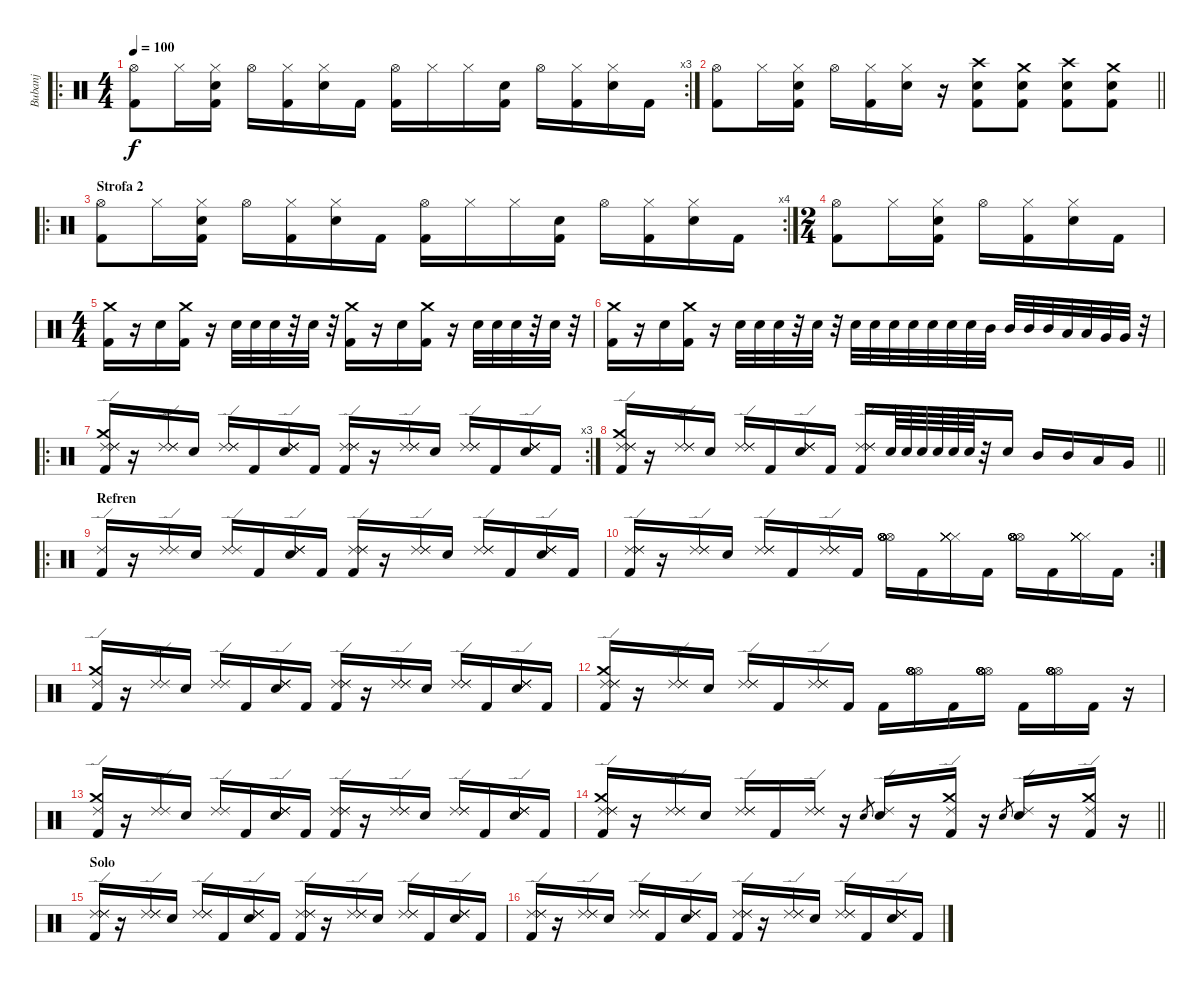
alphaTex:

\track ("Bubanj" "Bubanj") {instrument percussion}
\staff {score}
\articulation defaults
\ro
\rc 3
\ts (4 4)
\tempo 100
\clef neutral
\ks c
("Hi-Hat (open)" "Kick (hit) 2").8{dy f} "Hi-Hat (closed)".16 ("Hi-Hat (closed)" "Snare (hit) 2" "Kick (hit) 2").16 "Hi-Hat (open)".16 ("Hi-Hat (closed)" "Kick (hit) 2").16 ("Hi-Hat (closed)" "Snare (hit) 2").16 "Kick (hit) 2".16 ("Hi-Hat (open)" "Kick (hit) 2").16 "Hi-Hat (closed)".16 "Hi-Hat (closed)".16 ("Snare (hit) 2" "Kick (hit) 2").16 "Hi-Hat (open)".16 ("Hi-Hat (closed)" "Kick (hit) 2").16 ("Hi-Hat (closed)" "Snare (hit) 2").16 "Kick (hit) 2".16 |
\barLineRight lightlight
("Hi-Hat (open)" "Kick (hit) 2").8 "Hi-Hat (closed)".16 ("Hi-Hat (closed)" "Snare (hit) 2" "Kick (hit) 2").16 "Hi-Hat (open)".16 ("Hi-Hat (closed)" "Kick (hit) 2").16 ("Hi-Hat (closed)" "Snare (hit) 2").16 r.16 ("Kick (hit) 2" "Snare (hit) 2" "Crash high (hit)").8 ("Kick (hit) 2" "Snare (hit) 2" "Crash medium (hit)").8 ("Kick (hit) 2" "Snare (hit) 2" "Crash high (hit)").8 ("Kick (hit) 2" "Snare (hit) 2" "Crash medium (hit)").8 |
\ro
\rc 4
\section ("" "Strofa 2")
("Hi-Hat (open)" "Kick (hit) 2").8 "Hi-Hat (closed)".16 ("Hi-Hat (closed)" "Snare (hit) 2" "Kick (hit) 2").16 "Hi-Hat (open)".16 ("Hi-Hat (closed)" "Kick (hit) 2").16 ("Hi-Hat (closed)" "Snare (hit) 2").16 "Kick (hit) 2".16 ("Hi-Hat (open)" "Kick (hit) 2").16 "Hi-Hat (closed)".16 "Hi-Hat (closed)".16 ("Snare (hit) 2" "Kick (hit) 2").16 "Hi-Hat (open)".16 ("Hi-Hat (closed)" "Kick (hit) 2").16 ("Hi-Hat (closed)" "Snare (hit) 2").16 "Kick (hit) 2".16 |
\ts (2 4)
("Hi-Hat (open)" "Kick (hit) 2").8 "Hi-Hat (closed)".16 ("Hi-Hat (closed)" "Snare (hit) 2" "Kick (hit) 2").16 "Hi-Hat (open)".16 ("Hi-Hat (closed)" "Kick (hit) 2").16 ("Hi-Hat (closed)" "Snare (hit) 2").16 "Kick (hit) 2".16 |
\ts (4 4)
("Kick (hit) 2" "Crash medium (hit)").16 r.16 "Snare (hit) 2".16 ("Kick (hit) 2" "Crash medium (hit)").16 r.16 "Snare (hit) 2".32 "Snare (hit) 2".32 "Snare (hit) 2".32 r.32 "Snare (hit) 2".32 r.32 ("Kick (hit) 2" "Crash medium (hit)").16 r.16 "Snare (hit) 2".16 ("Kick (hit) 2" "Crash medium (hit)").16 r.16 "Snare (hit) 2".32 "Snare (hit) 2".32 "Snare (hit) 2".32 r.32 "Snare (hit) 2".32 r.32 |
("Kick (hit) 2" "Crash medium (hit)").16 r.16 "Snare (hit) 2".16 ("Kick (hit) 2" "Crash medium (hit)").16 r.16 "Snare (hit) 2".32 "Snare (hit) 2".32 "Snare (hit) 2".32 r.32 "Snare (hit) 2".32 r.32 "Snare (hit) 2".32 "Snare (hit) 2".32 "Snare (hit) 2".32 "Snare (hit) 2".32 "Snare (hit) 2".32 "Snare (hit) 2".32 "Snare (hit) 2".32 "Mid Tom (hit)".32 "Mid Tom (hit)".32 "Mid Tom (hit)".32 "Mid Tom (hit)".32 "Low Tom (hit)".32 "Low Tom (hit)".32 "Very Low Tom (hit)".32 "Very Low Tom (hit)".32 r.32 |
\ro
\rc 3
("Crash medium (hit)" "Kick (hit) 2" "Ride (edge) 2" "Ride (edge) 2" "Ride (edge) 2").16 r.16 ("Ride (edge) 2" "Ride (edge) 2" "Ride (edge) 2").16 "Snare (hit) 2".16 ("Ride (edge) 2" "Ride (edge) 2" "Ride (edge) 2").16 "Kick (hit) 2".16 ("Snare (hit) 2" "Ride (edge) 2" "Ride (edge) 2" "Ride (edge) 2").16 "Kick (hit) 2".16 ("Kick (hit) 2" "Ride (edge) 2" "Ride (edge) 2" "Ride (edge) 2").16 r.16 ("Ride (edge) 2" "Ride (edge) 2" "Ride (edge) 2").16 "Snare (hit) 2".16 ("Ride (edge) 2" "Ride (edge) 2" "Ride (edge) 2").16 "Kick (hit) 2".16 ("Snare (hit) 2" "Ride (edge) 2" "Ride (edge) 2" "Ride (edge) 2").16 "Kick (hit) 2".16 |
\barLineRight lightlight
("Crash medium (hit)" "Kick (hit) 2" "Ride (edge) 2" "Ride (edge) 2" "Ride (edge) 2").16 r.16 ("Ride (edge) 2" "Ride (edge) 2" "Ride (edge) 2").16 "Snare (hit) 2".16 ("Ride (edge) 2" "Ride (edge) 2" "Ride (edge) 2").16 "Kick (hit) 2".16 ("Snare (hit) 2" "Ride (edge) 2" "Ride (edge) 2" "Ride (edge) 2").16 "Kick (hit) 2".16 ("Kick (hit) 2" "Ride (edge) 2" "Ride (edge) 2" "Ride (edge) 2").16 "Snare (hit) 2".64 "Snare (hit) 2".64 "Snare (hit) 2".64 "Snare (hit) 2".64 "Snare (hit) 2".64 "Snare (hit) 2".64 r.32 "Snare (hit) 2".16 "Mid Tom (hit)".16 "Mid Tom (hit)".16 "Low Tom (hit)".16 "Very Low Tom (hit)".16 |
\ro
\section ("" "Refren")
("Kick (hit) 2" "Ride (edge) 2").16 r.16 ("Ride (edge) 2" "Ride (edge) 2").16 "Snare (hit) 2".16 ("Ride (edge) 2" "Ride (edge) 2").16 "Kick (hit) 2".16 ("Snare (hit) 2" "Ride (edge) 2" "Ride (edge) 2" "Ride (edge) 2").16 "Kick (hit) 2".16 ("Kick (hit) 2" "Ride (edge) 2" "Ride (edge) 2" "Ride (edge) 2").16 r.16 ("Ride (edge) 2" "Ride (edge) 2" "Ride (edge) 2").16 "Snare (hit) 2".16 ("Ride (edge) 2" "Ride (edge) 2" "Ride (edge) 2").16 "Kick (hit) 2".16 ("Snare (hit) 2" "Ride (edge) 2" "Ride (edge) 2" "Ride (edge) 2").16 "Kick (hit) 2".16 |
\rc 2
("Kick (hit) 2" "Ride (edge) 2" "Ride (edge) 2" "Ride (edge) 2").16 r.16 ("Ride (edge) 2" "Ride (edge) 2" "Ride (edge) 2").16 "Snare (hit) 2".16 ("Ride (edge) 2" "Ride (edge) 2" "Ride (edge) 2").16 "Kick (hit) 2".16 ("Ride (edge) 2" "Ride (edge) 2" "Ride (edge) 2").16 "Kick (hit) 2".16 ("Hi-Hat (open)" "Hi-Hat (open)" "Hi-Hat (open)" "Hi-Hat (open)" "Hi-Hat (open)" "Hi-Hat (open)").16 "Kick (hit) 2".16 ("Hi-Hat (closed)" "Hi-Hat (closed)" "Hi-Hat (closed)" "Hi-Hat (closed)" "Hi-Hat (closed)" "Hi-Hat (closed)").16 "Kick (hit) 2".16 ("Hi-Hat (open)" "Hi-Hat (open)" "Hi-Hat (open)" "Hi-Hat (open)" "Hi-Hat (open)" "Hi-Hat (open)").16 "Kick (hit) 2".16 ("Hi-Hat (closed)" "Hi-Hat (closed)" "Hi-Hat (closed)" "Hi-Hat (closed)" "Hi-Hat (closed)" "Hi-Hat (closed)").16 "Kick (hit) 2".16 |
("Crash medium (hit)" "Kick (hit) 2" "Ride (edge) 2").16 r.16 ("Ride (edge) 2" "Ride (edge) 2").16 "Snare (hit) 2".16 ("Ride (edge) 2" "Ride (edge) 2").16 "Kick (hit) 2".16 ("Snare (hit) 2" "Ride (edge) 2" "Ride (edge) 2" "Ride (edge) 2").16 "Kick (hit) 2".16 ("Kick (hit) 2" "Ride (edge) 2" "Ride (edge) 2" "Ride (edge) 2").16 r.16 ("Ride (edge) 2" "Ride (edge) 2" "Ride (edge) 2").16 "Snare (hit) 2".16 ("Ride (edge) 2" "Ride (edge) 2" "Ride (edge) 2").16 "Kick (hit) 2".16 ("Snare (hit) 2" "Ride (edge) 2" "Ride (edge) 2" "Ride (edge) 2").16 "Kick (hit) 2".16 |
("Crash medium (hit)" "Kick (hit) 2" "Ride (edge) 2" "Ride (edge) 2" "Ride (edge) 2").16 r.16 ("Ride (edge) 2" "Ride (edge) 2" "Ride (edge) 2").16 "Snare (hit) 2".16 ("Ride (edge) 2" "Ride (edge) 2" "Ride (edge) 2").16 "Kick (hit) 2".16 ("Ride (edge) 2" "Ride (edge) 2" "Ride (edge) 2").16 "Kick (hit) 2".16 "Kick (hit) 2".16 ("Hi-Hat (open)" "Hi-Hat (open)" "Hi-Hat (open)" "Hi-Hat (open)" "Hi-Hat (open)" "Hi-Hat (open)").16 "Kick (hit) 2".16 ("Hi-Hat (open)" "Hi-Hat (open)" "Hi-Hat (open)" "Hi-Hat (open)" "Hi-Hat (open)" "Hi-Hat (open)").16 "Kick (hit) 2".16 ("Hi-Hat (open)" "Hi-Hat (open)" "Hi-Hat (open)" "Hi-Hat (open)" "Hi-Hat (open)" "Hi-Hat (open)").16 "Kick (hit) 2".16 r.16 |
("Crash medium (hit)" "Kick (hit) 2" "Ride (edge) 2").16 r.16 ("Ride (edge) 2" "Ride (edge) 2").16 "Snare (hit) 2".16 ("Ride (edge) 2" "Ride (edge) 2").16 "Kick (hit) 2".16 ("Snare (hit) 2" "Ride (edge) 2" "Ride (edge) 2" "Ride (edge) 2").16 "Kick (hit) 2".16 ("Kick (hit) 2" "Ride (edge) 2" "Ride (edge) 2" "Ride (edge) 2").16 r.16 ("Ride (edge) 2" "Ride (edge) 2" "Ride (edge) 2").16 "Snare (hit) 2".16 ("Ride (edge) 2" "Ride (edge) 2" "Ride (edge) 2").16 "Kick (hit) 2".16 ("Snare (hit) 2" "Ride (edge) 2" "Ride (edge) 2" "Ride (edge) 2").16 "Kick (hit) 2".16 |
\barLineRight lightlight
("Crash medium (hit)" "Kick (hit) 2" "Ride (edge) 2" "Ride (edge) 2" "Ride (edge) 2").16 r.16 ("Ride (edge) 2" "Ride (edge) 2" "Ride (edge) 2").16 "Snare (hit) 2".16 ("Ride (edge) 2" "Ride (edge) 2" "Ride (edge) 2").16 "Kick (hit) 2".16 ("Ride (edge) 2" "Ride (edge) 2" "Ride (edge) 2").16 r.16 "Snare (hit) 2".8{gr} ("Snare (hit) 2" "Ride (edge) 2").16 r.16 ("Crash medium (hit)" "Kick (hit) 2" "Ride (edge) 2").16 r.16 "Snare (hit) 2".8{gr} ("Snare (hit) 2" "Ride (edge) 2").16 r.16 ("Crash medium (hit)" "Kick (hit) 2" "Ride (edge) 2").16 r.16 |
\section ("" "Solo")
("Kick (hit) 2" "Ride (edge) 2" "Ride (edge) 2" "Ride (edge) 2").16 r.16 ("Ride (edge) 2" "Ride (edge) 2" "Ride (edge) 2").16 "Snare (hit) 2".16 ("Ride (edge) 2" "Ride (edge) 2" "Ride (edge) 2").16 "Kick (hit) 2".16 ("Snare (hit) 2" "Ride (edge) 2" "Ride (edge) 2" "Ride (edge) 2").16 "Kick (hit) 2".16 ("Kick (hit) 2" "Ride (edge) 2" "Ride (edge) 2" "Ride (edge) 2").16 r.16 ("Ride (edge) 2" "Ride (edge) 2" "Ride (edge) 2").16 "Snare (hit) 2".16 ("Ride (edge) 2" "Ride (edge) 2" "Ride (edge) 2").16 "Kick (hit) 2".16 ("Snare (hit) 2" "Ride (edge) 2" "Ride (edge) 2" "Ride (edge) 2").16 "Kick (hit) 2".16 |
("Kick (hit) 2" "Ride (edge) 2" "Ride (edge) 2" "Ride (edge) 2").16 r.16 ("Ride (edge) 2" "Ride (edge) 2" "Ride (edge) 2").16 "Snare (hit) 2".16 ("Ride (edge) 2" "Ride (edge) 2" "Ride (edge) 2").16 "Kick (hit) 2".16 ("Snare (hit) 2" "Ride (edge) 2" "Ride (edge) 2" "Ride (edge) 2").16 "Kick (hit) 2".16 ("Kick (hit) 2" "Ride (edge) 2" "Ride (edge) 2" "Ride (edge) 2").16 r.16 ("Ride (edge) 2" "Ride (edge) 2" "Ride (edge) 2").16 "Snare (hit) 2".16 ("Ride (edge) 2" "Ride (edge) 2" "Ride (edge) 2").16 "Kick (hit) 2".16 ("Snare (hit) 2" "Ride (edge) 2" "Ride (edge) 2" "Ride (edge) 2").16 "Kick (hit) 2".16
